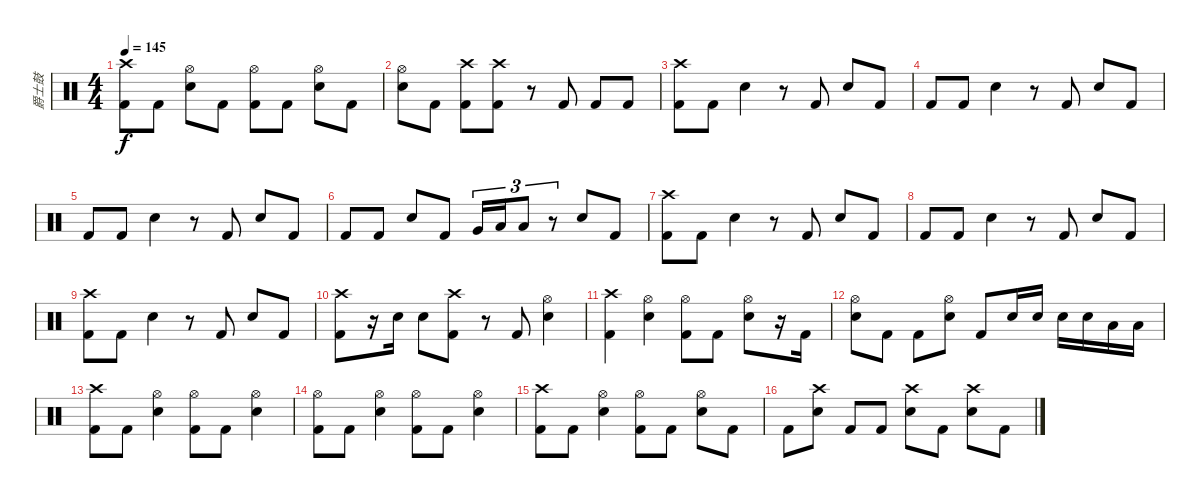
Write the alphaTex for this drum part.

\track ("爵士鼓" "爵士鼓") {instrument percussion}
\staff {score}
\articulation defaults
\ts (4 4)
\tempo 145
\clef neutral
\ks c
("Crash high (hit)" "Kick (hit) 2").8{dy f} "Kick (hit) 2".8 ("Hi-Hat (open)" "Electric Snare (hit)").8 "Kick (hit) 2".8 ("Hi-Hat (open)" "Kick (hit) 2").8 "Kick (hit) 2".8 ("Hi-Hat (open)" "Electric Snare (hit)").8 "Kick (hit) 2".8 |
("Hi-Hat (open)" "Electric Snare (hit)").8 "Kick (hit) 2".8 ("Crash high (hit)" "Kick (hit) 2").8 ("Crash high (hit)" "Kick (hit) 2").8 r.8 "Kick (hit) 2".8 "Kick (hit) 2".8 "Kick (hit) 2".8 |
("Crash high (hit)" "Kick (hit) 2").8 "Kick (hit) 2".8 "Electric Snare (hit)".4 r.8 "Kick (hit) 2".8 "Electric Snare (hit)".8 "Kick (hit) 2".8 |
"Kick (hit) 2".8 "Kick (hit) 2".8 "Electric Snare (hit)".4 r.8 "Kick (hit) 2".8 "Electric Snare (hit)".8 "Kick (hit) 2".8 |
"Kick (hit) 2".8 "Kick (hit) 2".8 "Electric Snare (hit)".4 r.8 "Kick (hit) 2".8 "Electric Snare (hit)".8 "Kick (hit) 2".8 |
"Kick (hit) 2".8 "Kick (hit) 2".8 "Electric Snare (hit)".8 "Kick (hit) 2".8 "Very Low Tom (hit)".16{tu (3 2)} "Low Floor Tom (hit)".16{tu (3 2)} "Low Floor Tom (hit)".8{tu (3 2)} r.8{tu (3 2)} "Electric Snare (hit)".8 "Kick (hit) 2".8 |
("Crash high (hit)" "Kick (hit) 2").8 "Kick (hit) 2".8 "Electric Snare (hit)".4 r.8 "Kick (hit) 2".8 "Electric Snare (hit)".8 "Kick (hit) 2".8 |
"Kick (hit) 2".8 "Kick (hit) 2".8 "Electric Snare (hit)".4 r.8 "Kick (hit) 2".8 "Electric Snare (hit)".8 "Kick (hit) 2".8 |
("Crash high (hit)" "Kick (hit) 2").8 "Kick (hit) 2".8 "Electric Snare (hit)".4 r.8 "Kick (hit) 2".8 "Electric Snare (hit)".8 "Kick (hit) 2".8 |
("Crash high (hit)" "Kick (hit) 2").8 r.16 "Electric Snare (hit)".16 "Electric Snare (hit)".8 ("Crash high (hit)" "Kick (hit) 2").8 r.8 "Kick (hit) 2".8 ("Hi-Hat (open)" "Electric Snare (hit)").4 |
("Crash high (hit)" "Kick (hit) 2").4 ("Hi-Hat (open)" "Electric Snare (hit)").4 ("Hi-Hat (open)" "Kick (hit) 2").8 "Kick (hit) 2".8 ("Hi-Hat (open)" "Electric Snare (hit)").8 r.16 "Kick (hit) 2".16 |
("Hi-Hat (open)" "Electric Snare (hit)").8 "Kick (hit) 2".8 "Kick (hit) 2".8 ("Hi-Hat (open)" "Electric Snare (hit)").8 "Kick (hit) 2".8 "Electric Snare (hit)".16 "Electric Snare (hit)".16 "Electric Snare (hit)".16 "Electric Snare (hit)".16 "Low Floor Tom (hit)".16 "Low Floor Tom (hit)".16 |
("Crash high (hit)" "Kick (hit) 2").8 "Kick (hit) 2".8 ("Hi-Hat (open)" "Electric Snare (hit)").4 ("Hi-Hat (open)" "Kick (hit) 2").8 "Kick (hit) 2".8 ("Hi-Hat (open)" "Electric Snare (hit)").4 |
("Hi-Hat (open)" "Kick (hit) 2").8 "Kick (hit) 2".8 ("Hi-Hat (open)" "Electric Snare (hit)").4 ("Hi-Hat (open)" "Kick (hit) 2").8 "Kick (hit) 2".8 ("Hi-Hat (open)" "Electric Snare (hit)").4 |
("Crash high (hit)" "Kick (hit) 2").8 "Kick (hit) 2".8 ("Hi-Hat (open)" "Electric Snare (hit)").4 ("Hi-Hat (open)" "Kick (hit) 2").8 "Kick (hit) 2".8 ("Hi-Hat (open)" "Electric Snare (hit)").8 "Kick (hit) 2".8 |
"Kick (hit) 2".8 ("Crash high (hit)" "Electric Snare (hit)").8 "Kick (hit) 2".8 "Kick (hit) 2".8 ("Crash high (hit)" "Electric Snare (hit)").8 "Kick (hit) 2".8 ("Crash high (hit)" "Electric Snare (hit)").8 "Kick (hit) 2".8
